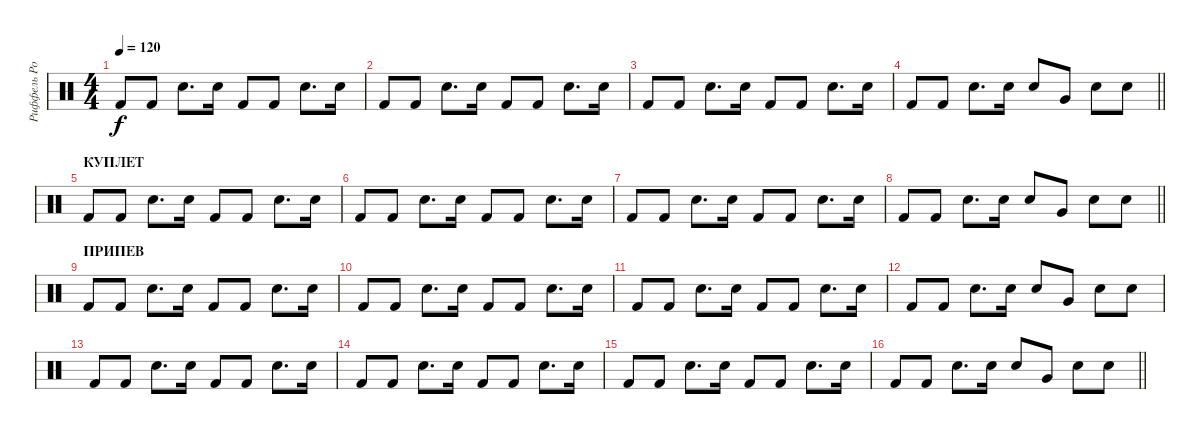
\track ("Риффель Роман (главные)" "Риффель Ро") {instrument percussion}
\staff {score}
\articulation defaults
\ts (4 4)
\tempo 120
\clef neutral
\ks c "Kick (hit) 2".8{dy f} "Kick (hit) 2".8 "Electric Snare (hit)".8{d} "Electric Snare (hit)".16 "Kick (hit) 2".8 "Kick (hit) 2".8 "Electric Snare (hit)".8{d} "Electric Snare (hit)".16
|
"Kick (hit) 2".8 "Kick (hit) 2".8 "Electric Snare (hit)".8{d} "Electric Snare (hit)".16 "Kick (hit) 2".8 "Kick (hit) 2".8 "Electric Snare (hit)".8{d} "Electric Snare (hit)".16 |
"Kick (hit) 2".8 "Kick (hit) 2".8 "Electric Snare (hit)".8{d} "Electric Snare (hit)".16 "Kick (hit) 2".8 "Kick (hit) 2".8 "Electric Snare (hit)".8{d} "Electric Snare (hit)".16 |
\barLineRight lightlight "Kick (hit) 2".8 "Kick (hit) 2".8 "Electric Snare (hit)".8{d} "Electric Snare (hit)".16 "Electric Snare (hit)".8 "Very Low Tom (hit)".8 "Electric Snare (hit)".8 "Electric Snare (hit)".8
|
\section ("" "КУПЛЕТ")
"Kick (hit) 2".8 "Kick (hit) 2".8 "Electric Snare (hit)".8{d} "Electric Snare (hit)".16 "Kick (hit) 2".8 "Kick (hit) 2".8 "Electric Snare (hit)".8{d} "Electric Snare (hit)".16 |
"Kick (hit) 2".8 "Kick (hit) 2".8 "Electric Snare (hit)".8{d} "Electric Snare (hit)".16 "Kick (hit) 2".8 "Kick (hit) 2".8 "Electric Snare (hit)".8{d} "Electric Snare (hit)".16 |
"Kick (hit) 2".8 "Kick (hit) 2".8 "Electric Snare (hit)".8{d} "Electric Snare (hit)".16 "Kick (hit) 2".8 "Kick (hit) 2".8 "Electric Snare (hit)".8{d} "Electric Snare (hit)".16 |
\barLineRight lightlight "Kick (hit) 2".8 "Kick (hit) 2".8 "Electric Snare (hit)".8{d} "Electric Snare (hit)".16 "Electric Snare (hit)".8 "Very Low Tom (hit)".8 "Electric Snare (hit)".8 "Electric Snare (hit)".8
|
\section ("" "ПРИПЕВ")
"Kick (hit) 2".8 "Kick (hit) 2".8 "Electric Snare (hit)".8{d} "Electric Snare (hit)".16 "Kick (hit) 2".8 "Kick (hit) 2".8 "Electric Snare (hit)".8{d} "Electric Snare (hit)".16 |
"Kick (hit) 2".8 "Kick (hit) 2".8 "Electric Snare (hit)".8{d} "Electric Snare (hit)".16 "Kick (hit) 2".8 "Kick (hit) 2".8 "Electric Snare (hit)".8{d} "Electric Snare (hit)".16 |
"Kick (hit) 2".8 "Kick (hit) 2".8 "Electric Snare (hit)".8{d} "Electric Snare (hit)".16 "Kick (hit) 2".8 "Kick (hit) 2".8 "Electric Snare (hit)".8{d} "Electric Snare (hit)".16 |
"Kick (hit) 2".8 "Kick (hit) 2".8 "Electric Snare (hit)".8{d} "Electric Snare (hit)".16 "Electric Snare (hit)".8 "Very Low Tom (hit)".8 "Electric Snare (hit)".8 "Electric Snare (hit)".8 |
"Kick (hit) 2".8 "Kick (hit) 2".8 "Electric Snare (hit)".8{d} "Electric Snare (hit)".16 "Kick (hit) 2".8 "Kick (hit) 2".8 "Electric Snare (hit)".8{d} "Electric Snare (hit)".16 |
"Kick (hit) 2".8 "Kick (hit) 2".8 "Electric Snare (hit)".8{d} "Electric Snare (hit)".16 "Kick (hit) 2".8 "Kick (hit) 2".8 "Electric Snare (hit)".8{d} "Electric Snare (hit)".16 |
"Kick (hit) 2".8 "Kick (hit) 2".8 "Electric Snare (hit)".8{d} "Electric Snare (hit)".16 "Kick (hit) 2".8 "Kick (hit) 2".8 "Electric Snare (hit)".8{d} "Electric Snare (hit)".16 |
\barLineRight lightlight "Kick (hit) 2".8 "Kick (hit) 2".8 "Electric Snare (hit)".8{d} "Electric Snare (hit)".16 "Electric Snare (hit)".8 "Very Low Tom (hit)".8 "Electric Snare (hit)".8 "Electric Snare (hit)".8
